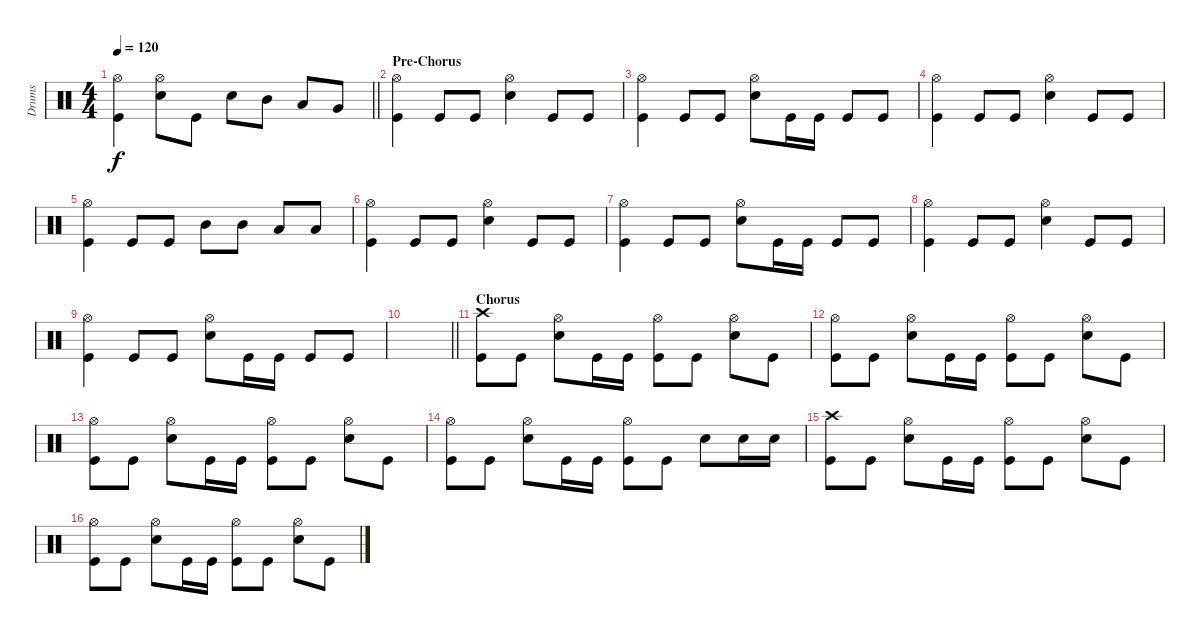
\track ("Drums" "Drums") {instrument percussion}
\staff {score}
\articulation defaults
\ts (4 4)
\tempo 120
\clef neutral
\barLineRight lightlight
\ks c
("Hi-Hat (open)" "Kick (hit)").4{dy f} ("Hi-Hat (open)" "Electric Snare (hit)").8 "Kick (hit)".8 "Electric Snare (hit)".8 "Mid Tom (hit)".8 "Low Tom (hit)".8 "Very Low Tom (hit)".8 |
\section ("" "Pre-Chorus")
("Hi-Hat (open)" "Kick (hit)").4 "Kick (hit)".8 "Kick (hit)".8 ("Hi-Hat (open)" "Electric Snare (hit)").4 "Kick (hit)".8 "Kick (hit)".8 |
("Hi-Hat (open)" "Kick (hit)").4 "Kick (hit)".8 "Kick (hit)".8 ("Hi-Hat (open)" "Electric Snare (hit)").8 "Kick (hit)".16 "Kick (hit)".16 "Kick (hit)".8 "Kick (hit)".8 |
("Hi-Hat (open)" "Kick (hit)").4 "Kick (hit)".8 "Kick (hit)".8 ("Hi-Hat (open)" "Electric Snare (hit)").4 "Kick (hit)".8 "Kick (hit)".8 |
("Hi-Hat (open)" "Kick (hit)").4 "Kick (hit)".8 "Kick (hit)".8 "Mid Tom (hit)".8 "Mid Tom (hit)".8 "Low Tom (hit)".8 "Low Tom (hit)".8 |
("Hi-Hat (open)" "Kick (hit)").4 "Kick (hit)".8 "Kick (hit)".8 ("Hi-Hat (open)" "Electric Snare (hit)").4 "Kick (hit)".8 "Kick (hit)".8 |
("Hi-Hat (open)" "Kick (hit)").4 "Kick (hit)".8 "Kick (hit)".8 ("Hi-Hat (open)" "Electric Snare (hit)").8 "Kick (hit)".16 "Kick (hit)".16 "Kick (hit)".8 "Kick (hit)".8 |
("Hi-Hat (open)" "Kick (hit)").4 "Kick (hit)".8 "Kick (hit)".8 ("Hi-Hat (open)" "Electric Snare (hit)").4 "Kick (hit)".8 "Kick (hit)".8 |
("Hi-Hat (open)" "Kick (hit)").4 "Kick (hit)".8 "Kick (hit)".8 ("Hi-Hat (open)" "Electric Snare (hit)").8 "Kick (hit)".16 "Kick (hit)".16 "Kick (hit)".8 "Kick (hit)".8 |
\barLineRight lightlight
|
\section ("" "Chorus")
("Crash high (hit)" "Kick (hit)").8 "Kick (hit)".8 ("Hi-Hat (open)" "Electric Snare (hit)").8 "Kick (hit)".16 "Kick (hit)".16 ("Hi-Hat (open)" "Kick (hit)").8 "Kick (hit)".8 ("Hi-Hat (open)" "Electric Snare (hit)").8 "Kick (hit)".8 |
("Hi-Hat (open)" "Kick (hit)").8 "Kick (hit)".8 ("Hi-Hat (open)" "Electric Snare (hit)").8 "Kick (hit)".16 "Kick (hit)".16 ("Hi-Hat (open)" "Kick (hit)").8 "Kick (hit)".8 ("Hi-Hat (open)" "Electric Snare (hit)").8 "Kick (hit)".8 |
("Hi-Hat (open)" "Kick (hit)").8 "Kick (hit)".8 ("Hi-Hat (open)" "Electric Snare (hit)").8 "Kick (hit)".16 "Kick (hit)".16 ("Hi-Hat (open)" "Kick (hit)").8 "Kick (hit)".8 ("Hi-Hat (open)" "Electric Snare (hit)").8 "Kick (hit)".8 |
("Hi-Hat (open)" "Kick (hit)").8 "Kick (hit)".8 ("Hi-Hat (open)" "Electric Snare (hit)").8 "Kick (hit)".16 "Kick (hit)".16 ("Hi-Hat (open)" "Kick (hit)").8 "Kick (hit)".8 "Electric Snare (hit)".8 "Electric Snare (hit)".16 "Electric Snare (hit)".16 |
("Crash high (hit)" "Kick (hit)").8 "Kick (hit)".8 ("Hi-Hat (open)" "Electric Snare (hit)").8 "Kick (hit)".16 "Kick (hit)".16 ("Hi-Hat (open)" "Kick (hit)").8 "Kick (hit)".8 ("Hi-Hat (open)" "Electric Snare (hit)").8 "Kick (hit)".8 |
("Hi-Hat (open)" "Kick (hit)").8 "Kick (hit)".8 ("Hi-Hat (open)" "Electric Snare (hit)").8 "Kick (hit)".16 "Kick (hit)".16 ("Hi-Hat (open)" "Kick (hit)").8 "Kick (hit)".8 ("Hi-Hat (open)" "Electric Snare (hit)").8 "Kick (hit)".8
